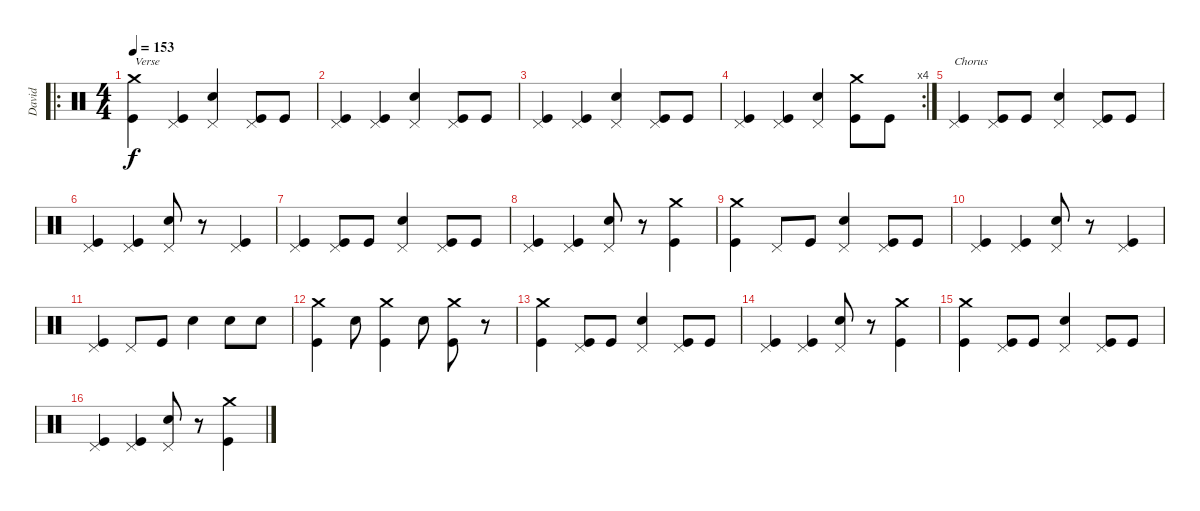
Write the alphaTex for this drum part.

\track ("David" "David") {instrument percussion}
\staff {score}
\articulation defaults
\ro
\ts (4 4)
\tempo 153
\clef neutral
\ks c
("Crash medium (hit)" "Kick (hit)").4{txt "Verse" dy f} ("Pedal Hi-Hat (hit)" "Kick (hit)").4 ("Pedal Hi-Hat (hit)" "Snare (hit) 2").4 ("Pedal Hi-Hat (hit)" "Kick (hit)").8 "Kick (hit)".8 |
("Pedal Hi-Hat (hit)" "Kick (hit)").4 ("Pedal Hi-Hat (hit)" "Kick (hit)").4 ("Pedal Hi-Hat (hit)" "Snare (hit) 2").4 ("Pedal Hi-Hat (hit)" "Kick (hit)").8 "Kick (hit)".8 |
("Pedal Hi-Hat (hit)" "Kick (hit)").4 ("Pedal Hi-Hat (hit)" "Kick (hit)").4 ("Pedal Hi-Hat (hit)" "Snare (hit) 2").4 ("Pedal Hi-Hat (hit)" "Kick (hit)").8 "Kick (hit)".8 |
\rc 4
("Pedal Hi-Hat (hit)" "Kick (hit)").4 ("Pedal Hi-Hat (hit)" "Kick (hit)").4 ("Pedal Hi-Hat (hit)" "Snare (hit) 2").4 ("Crash medium (hit)" "Kick (hit)").8 "Kick (hit)".8 |
("Pedal Hi-Hat (hit)" "Kick (hit)").4{txt "Chorus"} ("Pedal Hi-Hat (hit)" "Kick (hit)").8 "Kick (hit)".8 ("Pedal Hi-Hat (hit)" "Snare (hit) 2").4 ("Pedal Hi-Hat (hit)" "Kick (hit)").8 "Kick (hit)".8 |
("Pedal Hi-Hat (hit)" "Kick (hit)").4 ("Pedal Hi-Hat (hit)" "Kick (hit)").4 ("Pedal Hi-Hat (hit)" "Snare (hit) 2").8 r.8 ("Pedal Hi-Hat (hit)" "Kick (hit)").4 |
("Pedal Hi-Hat (hit)" "Kick (hit)").4 ("Pedal Hi-Hat (hit)" "Kick (hit)").8 "Kick (hit)".8 ("Pedal Hi-Hat (hit)" "Snare (hit) 2").4 ("Pedal Hi-Hat (hit)" "Kick (hit)").8 "Kick (hit)".8 |
("Pedal Hi-Hat (hit)" "Kick (hit)").4 ("Pedal Hi-Hat (hit)" "Kick (hit)").4 ("Pedal Hi-Hat (hit)" "Snare (hit) 2").8 r.8 ("Crash medium (hit)" "Kick (hit)").4 |
("Crash medium (hit)" "Kick (hit)").4 "Pedal Hi-Hat (hit)".8 "Kick (hit)".8 ("Pedal Hi-Hat (hit)" "Snare (hit) 2").4 ("Pedal Hi-Hat (hit)" "Kick (hit)").8 "Kick (hit)".8 |
("Pedal Hi-Hat (hit)" "Kick (hit)").4 ("Pedal Hi-Hat (hit)" "Kick (hit)").4 ("Pedal Hi-Hat (hit)" "Snare (hit) 2").8 r.8 ("Pedal Hi-Hat (hit)" "Kick (hit)").4 |
("Pedal Hi-Hat (hit)" "Kick (hit)").4 "Pedal Hi-Hat (hit)".8 "Kick (hit)".8 "Snare (hit) 2".4 "Snare (hit) 2".8 "Snare (hit) 2".8 |
("Crash medium (hit)" "Kick (hit)").4 "Snare (hit) 2".8 ("Crash medium (hit)" "Kick (hit)").4 "Snare (hit) 2".8 ("Crash medium (hit)" "Kick (hit)").8 r.8 |
("Crash medium (hit)" "Kick (hit)").4 ("Pedal Hi-Hat (hit)" "Kick (hit)").8 "Kick (hit)".8 ("Pedal Hi-Hat (hit)" "Snare (hit) 2").4 ("Pedal Hi-Hat (hit)" "Kick (hit)").8 "Kick (hit)".8 |
("Pedal Hi-Hat (hit)" "Kick (hit)").4 ("Pedal Hi-Hat (hit)" "Kick (hit)").4 ("Pedal Hi-Hat (hit)" "Snare (hit) 2").8 r.8 ("Crash medium (hit)" "Kick (hit)").4 |
("Crash medium (hit)" "Kick (hit)").4 ("Pedal Hi-Hat (hit)" "Kick (hit)").8 "Kick (hit)".8 ("Pedal Hi-Hat (hit)" "Snare (hit) 2").4 ("Pedal Hi-Hat (hit)" "Kick (hit)").8 "Kick (hit)".8 |
("Pedal Hi-Hat (hit)" "Kick (hit)").4 ("Pedal Hi-Hat (hit)" "Kick (hit)").4 ("Pedal Hi-Hat (hit)" "Snare (hit) 2").8 r.8 ("Crash medium (hit)" "Kick (hit)").4
